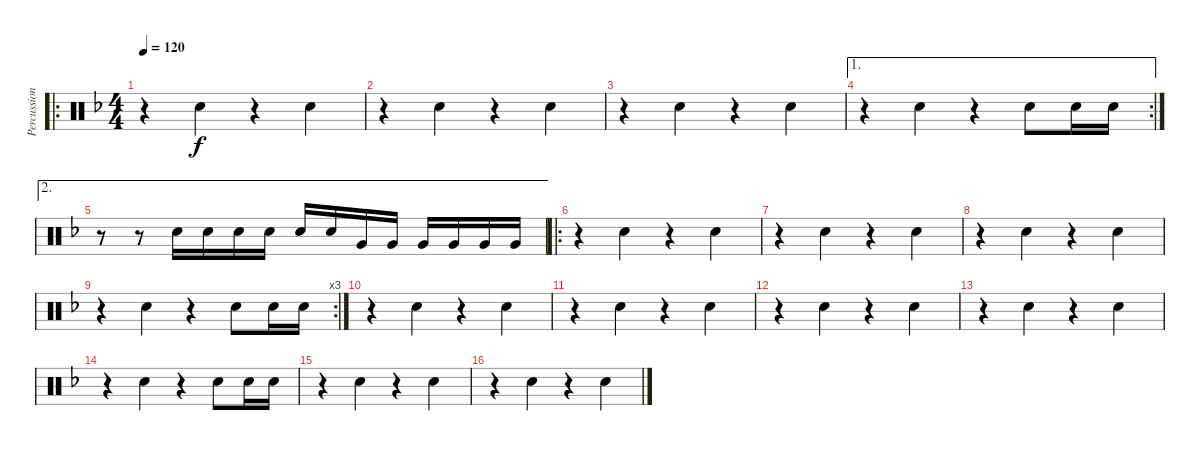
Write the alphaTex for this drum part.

\track ("Percussion" "Percussion") {instrument percussion}
\staff {score}
\articulation defaults
\ro
\ts (4 4)
\tempo 120
\clef neutral
\ks f
r.4{dy f} "Electric Snare (hit)".4 r.4 "Electric Snare (hit)".4 |
r.4 "Electric Snare (hit)".4 r.4 "Electric Snare (hit)".4 |
r.4 "Electric Snare (hit)".4 r.4 "Electric Snare (hit)".4 |
\ae 1
\rc 2
r.4 "Electric Snare (hit)".4 r.4 "Electric Snare (hit)".8 "Electric Snare (hit)".16 "Electric Snare (hit)".16 |
\ae 2
r.8 r.8 "Electric Snare (hit)".16 "Electric Snare (hit)".16 "Electric Snare (hit)".16 "Electric Snare (hit)".16 "Electric Snare (hit)".16 "Electric Snare (hit)".16 "Very Low Tom (hit)".16 "Very Low Tom (hit)".16 "Very Low Tom (hit)".16 "Very Low Tom (hit)".16 "Very Low Tom (hit)".16 "Very Low Tom (hit)".16 |
\ro
r.4 "Electric Snare (hit)".4 r.4 "Electric Snare (hit)".4 |
r.4 "Electric Snare (hit)".4 r.4 "Electric Snare (hit)".4 |
r.4 "Electric Snare (hit)".4 r.4 "Electric Snare (hit)".4 |
\rc 3
r.4 "Electric Snare (hit)".4 r.4 "Electric Snare (hit)".8 "Electric Snare (hit)".16 "Electric Snare (hit)".16 |
r.4 "Electric Snare (hit)".4 r.4 "Electric Snare (hit)".4 |
r.4 "Electric Snare (hit)".4 r.4 "Electric Snare (hit)".4 |
r.4 "Electric Snare (hit)".4 r.4 "Electric Snare (hit)".4 |
r.4 "Electric Snare (hit)".4 r.4 "Electric Snare (hit)".4 |
r.4 "Electric Snare (hit)".4 r.4 "Electric Snare (hit)".8 "Electric Snare (hit)".16 "Electric Snare (hit)".16 |
r.4 "Electric Snare (hit)".4 r.4 "Electric Snare (hit)".4 |
r.4 "Electric Snare (hit)".4 r.4 "Electric Snare (hit)".4
